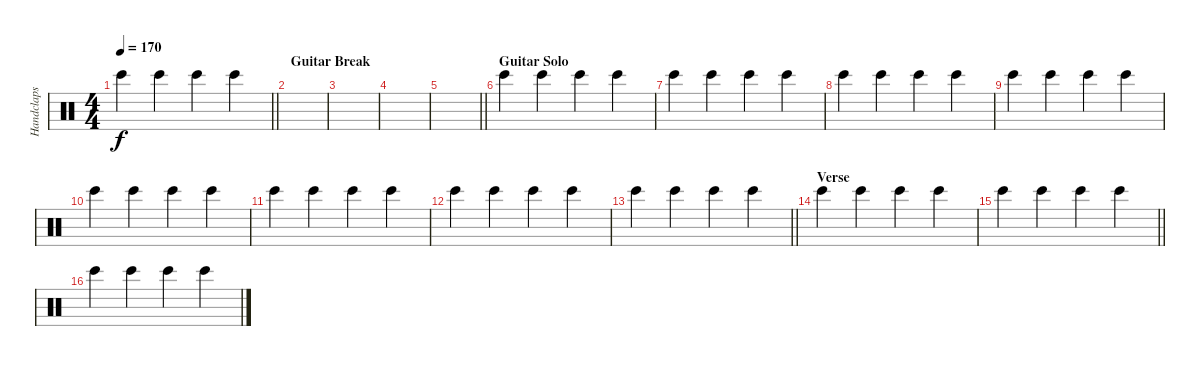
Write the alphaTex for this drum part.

\track ("Handclaps" "Handclaps") {instrument percussion}
\staff {score}
\articulation defaults
\ts (4 4)
\tempo 170
\clef neutral
\barLineRight lightlight
\ks c "Bongo High (hit)".4{dy f} "Bongo High (hit)".4 "Bongo High (hit)".4 "Bongo High (hit)".4
|
\section ("" "Guitar Break")
|
|
|
\barLineRight lightlight
|
\section ("" "Guitar Solo")
"Bongo High (hit)".4 "Bongo High (hit)".4 "Bongo High (hit)".4 "Bongo High (hit)".4 |
"Bongo High (hit)".4 "Bongo High (hit)".4 "Bongo High (hit)".4 "Bongo High (hit)".4 |
"Bongo High (hit)".4 "Bongo High (hit)".4 "Bongo High (hit)".4 "Bongo High (hit)".4 |
"Bongo High (hit)".4 "Bongo High (hit)".4 "Bongo High (hit)".4 "Bongo High (hit)".4 |
"Bongo High (hit)".4 "Bongo High (hit)".4 "Bongo High (hit)".4 "Bongo High (hit)".4 |
"Bongo High (hit)".4 "Bongo High (hit)".4 "Bongo High (hit)".4 "Bongo High (hit)".4 |
"Bongo High (hit)".4 "Bongo High (hit)".4 "Bongo High (hit)".4 "Bongo High (hit)".4 |
\barLineRight lightlight "Bongo High (hit)".4 "Bongo High (hit)".4 "Bongo High (hit)".4 "Bongo High (hit)".4
|
\section ("" "Verse")
"Bongo High (hit)".4 "Bongo High (hit)".4 "Bongo High (hit)".4 "Bongo High (hit)".4 |
\barLineRight lightlight "Bongo High (hit)".4 "Bongo High (hit)".4 "Bongo High (hit)".4 "Bongo High (hit)".4
|
"Bongo High (hit)".4 "Bongo High (hit)".4 "Bongo High (hit)".4 "Bongo High (hit)".4
